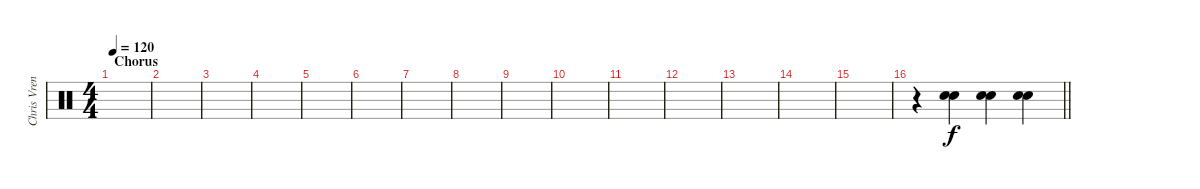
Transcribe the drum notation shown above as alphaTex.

\track ("Chris Vrenna" "Chris Vren") {instrument percussion}
\staff {score}
\articulation defaults
\ts (4 4)
\section ("" "Chorus")
\tempo 120
\clef neutral
\ks c
|
|
|
|
|
|
|
|
|
|
|
|
|
|
|
\barLineRight lightlight
r.4 ("Electric Snare (hit)" "Snare (hit) 2").4 ("Electric Snare (hit)" "Snare (hit) 2").4 ("Electric Snare (hit)" "Snare (hit) 2").4
